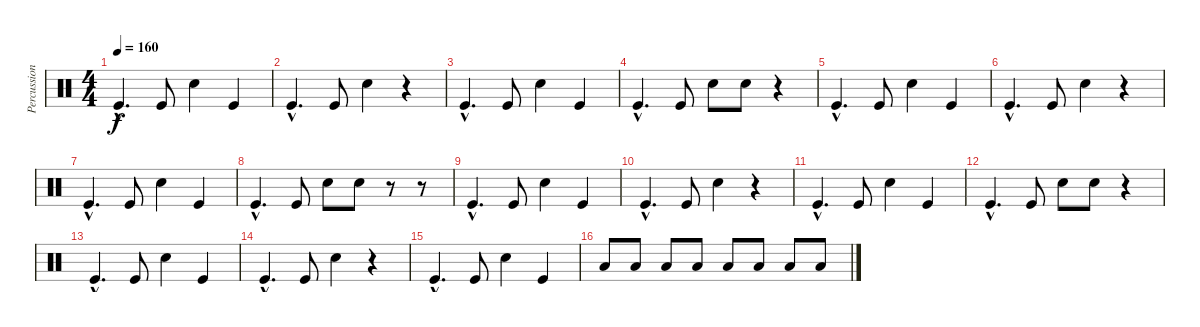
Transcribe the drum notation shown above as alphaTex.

\track ("Percussion" "Percussion") {instrument percussion}
\staff {score}
\articulation defaults
\ts (4 4)
\tempo 160
\clef neutral
\ks c "Kick (hit)"{hac}.4{d dy f} "Kick (hit)".8 "Electric Snare (hit)".4 "Kick (hit)".4
|
"Kick (hit)"{hac}.4{d} "Kick (hit)".8 "Electric Snare (hit)".4 r.4 |
"Kick (hit)"{hac}.4{d} "Kick (hit)".8 "Electric Snare (hit)".4 "Kick (hit)".4 |
"Kick (hit)"{hac}.4{d} "Kick (hit)".8 "Electric Snare (hit)".8 "Electric Snare (hit)".8 r.4 |
"Kick (hit)"{hac}.4{d} "Kick (hit)".8 "Electric Snare (hit)".4 "Kick (hit)".4 |
"Kick (hit)"{hac}.4{d} "Kick (hit)".8 "Electric Snare (hit)".4 r.4 |
"Kick (hit)"{hac}.4{d} "Kick (hit)".8 "Electric Snare (hit)".4 "Kick (hit)".4 |
"Kick (hit)"{hac}.4{d} "Kick (hit)".8 "Electric Snare (hit)".8 "Snare (hit) 2".8 r.8 r.8 |
"Kick (hit)"{hac}.4{d} "Kick (hit)".8 "Electric Snare (hit)".4 "Kick (hit)".4 |
"Kick (hit)"{hac}.4{d} "Kick (hit)".8 "Electric Snare (hit)".4 r.4 |
"Kick (hit)"{hac}.4{d} "Kick (hit)".8 "Electric Snare (hit)".4 "Kick (hit)".4 |
"Kick (hit)"{hac}.4{d} "Kick (hit)".8 "Electric Snare (hit)".8 "Electric Snare (hit)".8 r.4 |
"Kick (hit)"{hac}.4{d} "Kick (hit)".8 "Electric Snare (hit)".4 "Kick (hit)".4 |
"Kick (hit)"{hac}.4{d} "Kick (hit)".8 "Electric Snare (hit)".4 r.4 |
"Kick (hit)"{hac}.4{d} "Kick (hit)".8 "Electric Snare (hit)".4 "Kick (hit)".4 |
"Low Floor Tom (hit)".8 "Low Floor Tom (hit)".8 "Low Floor Tom (hit)".8 "Low Floor Tom (hit)".8 "Low Floor Tom (hit)".8 "Low Floor Tom (hit)".8 "Low Floor Tom (hit)".8 "Low Floor Tom (hit)".8
